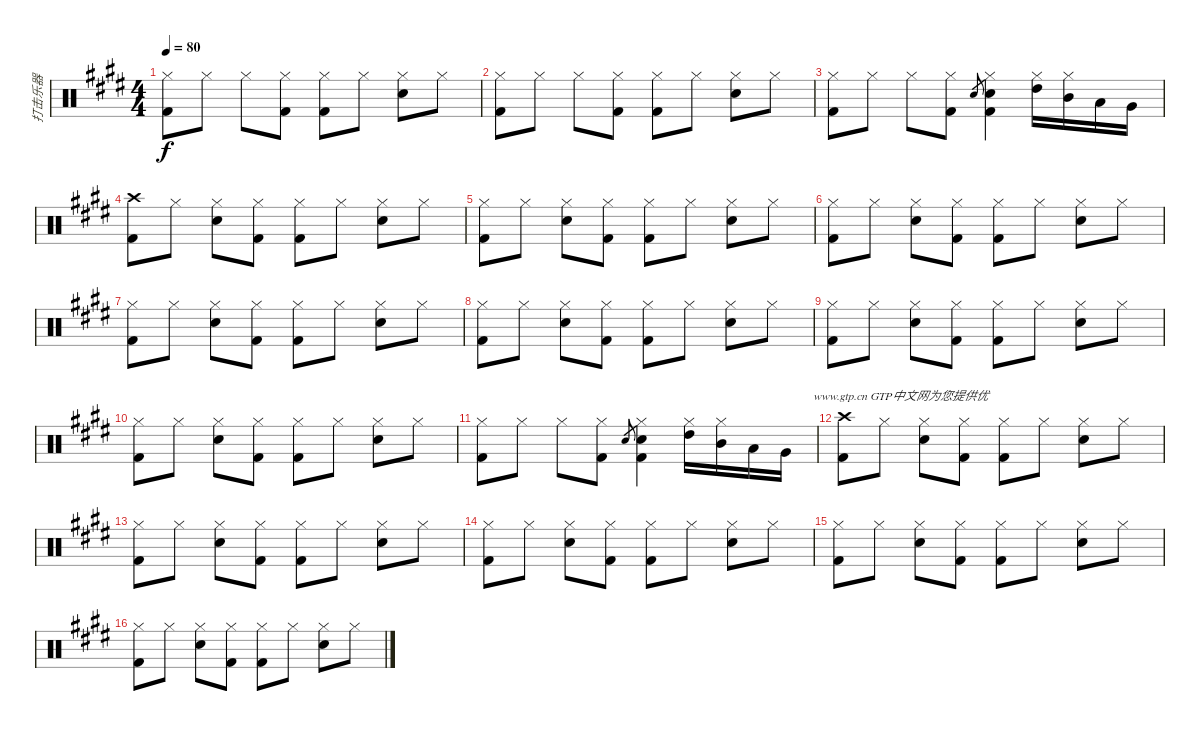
\track ("打击乐器" "打击乐器") {instrument percussion}
\staff {score}
\articulation defaults
\ts (4 4)
\tempo 80
\clef neutral
\ks c#minor
("Hi-Hat (closed)" "Kick (hit) 2").8{dy f} "Hi-Hat (closed)".8 "Hi-Hat (closed)".8 ("Hi-Hat (closed)" "Kick (hit) 2").8 ("Hi-Hat (closed)" "Kick (hit) 2").8 "Hi-Hat (closed)".8 ("Hi-Hat (closed)" "Snare (hit) 2").8 "Hi-Hat (closed)".8 |
("Hi-Hat (closed)" "Kick (hit) 2").8 "Hi-Hat (closed)".8 "Hi-Hat (closed)".8 ("Hi-Hat (closed)" "Kick (hit) 2").8 ("Hi-Hat (closed)" "Kick (hit) 2").8 "Hi-Hat (closed)".8 ("Hi-Hat (closed)" "Snare (hit) 2").8 "Hi-Hat (closed)".8 |
("Hi-Hat (closed)" "Kick (hit) 2").8 "Hi-Hat (closed)".8 "Hi-Hat (closed)".8 ("Hi-Hat (closed)" "Kick (hit) 2").8 "Snare (hit) 2".8{gr} ("Hi-Hat (closed)" "Snare (hit) 2" "Kick (hit) 2").4 ("Hi-Hat (closed)" "High Tom (hit)").16 ("Hi-Hat (closed)" "Mid Tom (hit)").16 "Low Tom (hit)".16 "Very Low Tom (hit)".16 |
("Crash high (hit)" "Kick (hit) 2").8 "Hi-Hat (closed)".8 ("Hi-Hat (closed)" "Snare (hit) 2").8 ("Hi-Hat (closed)" "Kick (hit) 2").8 ("Hi-Hat (closed)" "Kick (hit) 2").8 "Hi-Hat (closed)".8 ("Hi-Hat (closed)" "Snare (hit) 2").8 "Hi-Hat (closed)".8 |
("Hi-Hat (closed)" "Kick (hit) 2").8 "Hi-Hat (closed)".8 ("Hi-Hat (closed)" "Snare (hit) 2").8 ("Hi-Hat (closed)" "Kick (hit) 2").8 ("Hi-Hat (closed)" "Kick (hit) 2").8 "Hi-Hat (closed)".8 ("Hi-Hat (closed)" "Snare (hit) 2").8 "Hi-Hat (closed)".8 |
("Hi-Hat (closed)" "Kick (hit) 2").8 "Hi-Hat (closed)".8 ("Hi-Hat (closed)" "Snare (hit) 2").8 ("Hi-Hat (closed)" "Kick (hit) 2").8 ("Hi-Hat (closed)" "Kick (hit) 2").8 "Hi-Hat (closed)".8 ("Hi-Hat (closed)" "Snare (hit) 2").8 "Hi-Hat (closed)".8 |
("Hi-Hat (closed)" "Kick (hit) 2").8 "Hi-Hat (closed)".8 ("Hi-Hat (closed)" "Snare (hit) 2").8 ("Hi-Hat (closed)" "Kick (hit) 2").8 ("Hi-Hat (closed)" "Kick (hit) 2").8 "Hi-Hat (closed)".8 ("Hi-Hat (closed)" "Snare (hit) 2").8 "Hi-Hat (closed)".8 |
("Hi-Hat (closed)" "Kick (hit) 2").8 "Hi-Hat (closed)".8 ("Hi-Hat (closed)" "Snare (hit) 2").8 ("Hi-Hat (closed)" "Kick (hit) 2").8 ("Hi-Hat (closed)" "Kick (hit) 2").8 "Hi-Hat (closed)".8 ("Hi-Hat (closed)" "Snare (hit) 2").8 "Hi-Hat (closed)".8 |
("Hi-Hat (closed)" "Kick (hit) 2").8 "Hi-Hat (closed)".8 ("Hi-Hat (closed)" "Snare (hit) 2").8 ("Hi-Hat (closed)" "Kick (hit) 2").8 ("Hi-Hat (closed)" "Kick (hit) 2").8 "Hi-Hat (closed)".8 ("Hi-Hat (closed)" "Snare (hit) 2").8 "Hi-Hat (closed)".8 |
("Hi-Hat (closed)" "Kick (hit) 2").8 "Hi-Hat (closed)".8 ("Hi-Hat (closed)" "Snare (hit) 2").8 ("Hi-Hat (closed)" "Kick (hit) 2").8 ("Hi-Hat (closed)" "Kick (hit) 2").8 "Hi-Hat (closed)".8 ("Hi-Hat (closed)" "Snare (hit) 2").8 "Hi-Hat (closed)".8 |
("Hi-Hat (closed)" "Kick (hit) 2").8 "Hi-Hat (closed)".8 "Hi-Hat (closed)".8 ("Hi-Hat (closed)" "Kick (hit) 2").8 "Snare (hit) 2".8{gr} ("Hi-Hat (closed)" "Snare (hit) 2" "Kick (hit) 2").4 ("Hi-Hat (closed)" "High Tom (hit)").16 ("Hi-Hat (closed)" "Mid Tom (hit)").16 "Low Tom (hit)".16{txt "                    www.gtp.cn GTP中文网为您提供优"} "Very Low Tom (hit)".16 |
("Crash high (hit)" "Kick (hit) 2").8 "Hi-Hat (closed)".8 ("Hi-Hat (closed)" "Snare (hit) 2").8 ("Hi-Hat (closed)" "Kick (hit) 2").8 ("Hi-Hat (closed)" "Kick (hit) 2").8 "Hi-Hat (closed)".8 ("Hi-Hat (closed)" "Snare (hit) 2").8 "Hi-Hat (closed)".8 |
("Hi-Hat (closed)" "Kick (hit) 2").8 "Hi-Hat (closed)".8 ("Hi-Hat (closed)" "Snare (hit) 2").8 ("Hi-Hat (closed)" "Kick (hit) 2").8 ("Hi-Hat (closed)" "Kick (hit) 2").8 "Hi-Hat (closed)".8 ("Hi-Hat (closed)" "Snare (hit) 2").8 "Hi-Hat (closed)".8 |
("Hi-Hat (closed)" "Kick (hit) 2").8 "Hi-Hat (closed)".8 ("Hi-Hat (closed)" "Snare (hit) 2").8 ("Hi-Hat (closed)" "Kick (hit) 2").8 ("Hi-Hat (closed)" "Kick (hit) 2").8 "Hi-Hat (closed)".8 ("Hi-Hat (closed)" "Snare (hit) 2").8 "Hi-Hat (closed)".8 |
("Hi-Hat (closed)" "Kick (hit) 2").8 "Hi-Hat (closed)".8 ("Hi-Hat (closed)" "Snare (hit) 2").8 ("Hi-Hat (closed)" "Kick (hit) 2").8 ("Hi-Hat (closed)" "Kick (hit) 2").8 "Hi-Hat (closed)".8 ("Hi-Hat (closed)" "Snare (hit) 2").8 "Hi-Hat (closed)".8 |
("Hi-Hat (closed)" "Kick (hit) 2").8 "Hi-Hat (closed)".8 ("Hi-Hat (closed)" "Snare (hit) 2").8 ("Hi-Hat (closed)" "Kick (hit) 2").8 ("Hi-Hat (closed)" "Kick (hit) 2").8 "Hi-Hat (closed)".8 ("Hi-Hat (closed)" "Snare (hit) 2").8 "Hi-Hat (closed)".8
